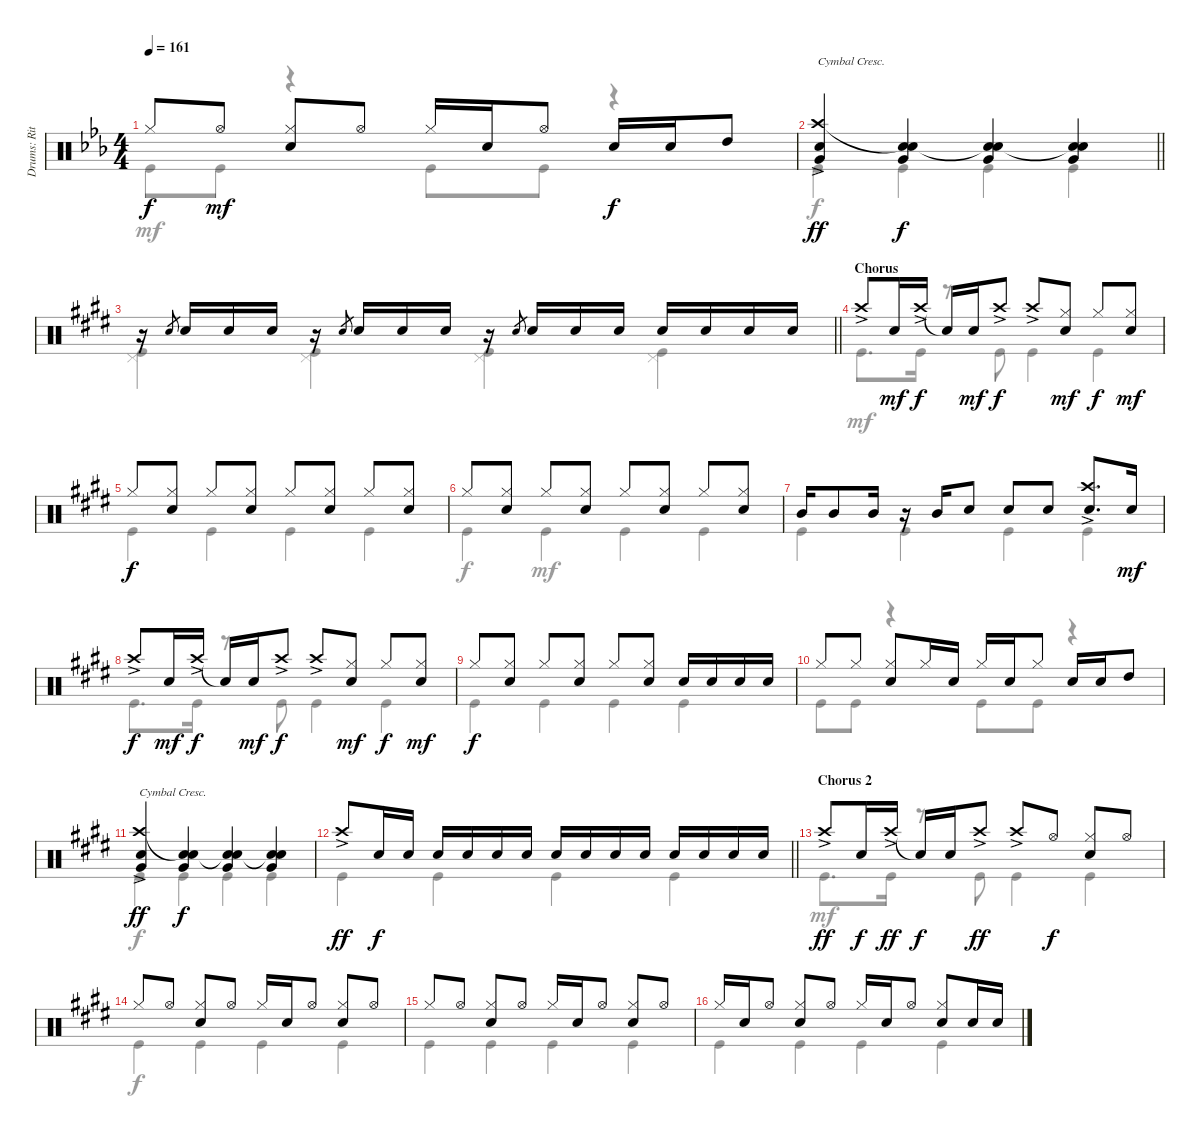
\track ("Drums: Ritsu Tianaka" "Drums: Rit") {instrument percussion}
\staff {score}
\articulation defaults
\voice
\ts (4 4)
\tempo 161
\clef neutral
\ks eb "Hi-Hat (closed)".8{dy f} "Hi-Hat (open)".8{dy mf}
("Hi-Hat (closed)" "Snare (hit) 2").8 "Hi-Hat (open)".8 "Hi-Hat (closed)".16 "Snare (hit) 2".16 "Hi-Hat (open)".8 "Snare (hit) 2".16{dy f} "Snare (hit) 2".16 "High Tom (hit)".8 |
\barLineRight lightlight
("Crash high (hit)"{ac} "Snare (hit) 2" "Very Low Tom (hit)").4{txt "Cymbal Cresc." dy ff} ("Snare (hit)"{t} "Snare (hit) 2" "Very Low Tom (hit)").4{dy f} ("Snare (hit)"{t} "Snare (hit) 2" "Very Low Tom (hit)").4 ("Snare (hit)"{t} "Snare (hit) 2" "Very Low Tom (hit)").4 |
\barLineRight lightlight
\ks e
r.16 "Snare (hit) 2".8{gr} "Snare (hit) 2".16 "Snare (hit) 2".16 "Snare (hit) 2".16 r.16 "Snare (hit) 2".8{gr} "Snare (hit) 2".16 "Snare (hit) 2".16 "Snare (hit) 2".16 r.16 "Snare (hit) 2".8{gr} "Snare (hit) 2".16 "Snare (hit) 2".16 "Snare (hit) 2".16 "Snare (hit) 2".16 "Snare (hit) 2".16 "Snare (hit) 2".16 "Snare (hit) 2".16 |
\section ("" "Chorus")
"Crash high (hit)"{ac}.8 "Snare (hit) 2".16{dy mf} "Crash high (hit)"{ac}.16{dy f} "Snare (hit)"{t}.16 "Snare (hit) 2".16{dy mf} "Crash high (hit)"{ac}.8{dy f} "Crash high (hit)"{ac}.8 ("Hi-Hat (closed)" "Snare (hit) 2").8{dy mf} "Hi-Hat (closed)".8{dy f} ("Hi-Hat (closed)" "Snare (hit) 2").8{dy mf} |
"Hi-Hat (closed)".8{dy f} ("Hi-Hat (closed)" "Snare (hit) 2").8 "Hi-Hat (closed)".8 ("Hi-Hat (closed)" "Snare (hit) 2").8 "Hi-Hat (closed)".8 ("Hi-Hat (closed)" "Snare (hit) 2").8 "Hi-Hat (closed)".8 ("Hi-Hat (closed)" "Snare (hit) 2").8 |
"Hi-Hat (closed)".8 ("Hi-Hat (closed)" "Snare (hit) 2").8 "Hi-Hat (closed)".8 ("Hi-Hat (closed)" "Snare (hit) 2").8 "Hi-Hat (closed)".8 ("Hi-Hat (closed)" "Snare (hit) 2").8 "Hi-Hat (closed)".8 ("Hi-Hat (closed)" "Snare (hit) 2").8 |
"Mid Tom (hit)".16 "Mid Tom (hit)".8 "Mid Tom (hit)".16 r.16 "Mid Tom (hit)".16 "Snare (hit) 2".8 "Snare (hit) 2".8 "Snare (hit) 2".8 ("Crash high (hit)"{ac} "Snare (hit) 2").8{d} "Snare (hit) 2".16{dy mf} |
"Crash high (hit)"{ac}.8{dy f} "Snare (hit) 2".16{dy mf} "Crash high (hit)"{ac}.16{dy f} "Snare (hit)"{t}.16 "Snare (hit) 2".16{dy mf} "Crash high (hit)"{ac}.8{dy f} "Crash high (hit)"{ac}.8 ("Hi-Hat (closed)" "Snare (hit) 2").8{dy mf} "Hi-Hat (closed)".8{dy f} ("Hi-Hat (closed)" "Snare (hit) 2").8{dy mf} |
"Hi-Hat (closed)".8{dy f} ("Hi-Hat (closed)" "Snare (hit) 2").8 "Hi-Hat (closed)".8 ("Hi-Hat (closed)" "Snare (hit) 2").8 "Hi-Hat (closed)".8 ("Hi-Hat (closed)" "Snare (hit) 2").8 "Snare (hit) 2".16 "Snare (hit) 2".16 "Snare (hit) 2".16 "Snare (hit) 2".16 |
"Hi-Hat (closed)".8 "Hi-Hat (closed)".8 ("Hi-Hat (closed)" "Snare (hit) 2").8 "Hi-Hat (closed)".16 "Snare (hit) 2".16 "Hi-Hat (closed)".16 "Snare (hit) 2".16 "Hi-Hat (closed)".8 "Snare (hit) 2".16 "Snare (hit) 2".16 "High Tom (hit)".8 |
("Crash high (hit)"{ac} "Snare (hit) 2" "Very Low Tom (hit)").4{txt "Cymbal Cresc." dy ff} ("Snare (hit)"{t} "Snare (hit) 2" "Very Low Tom (hit)").4{dy f} ("Snare (hit)"{t} "Snare (hit) 2" "Very Low Tom (hit)").4 ("Snare (hit)"{t} "Snare (hit) 2" "Very Low Tom (hit)").4 |
\barLineRight lightlight "Crash high (hit)"{ac}.8{dy ff} "Snare (hit) 2".16{dy f volume 12} "Snare (hit) 2".16{volume 15} "Snare (hit) 2".16 "Snare (hit) 2".16 "Snare (hit) 2".16 "Snare (hit) 2".16 "Snare (hit) 2".16 "Snare (hit) 2".16 "Snare (hit) 2".16 "Snare (hit) 2".16 "Snare (hit) 2".16 "Snare (hit) 2".16 "Snare (hit) 2".16 "Snare (hit) 2".16
|
\section ("" "Chorus 2")
"Crash high (hit)"{ac}.8{dy ff} "Snare (hit) 2".16{dy f} "Crash high (hit)"{ac}.16{dy ff} "Snare (hit)"{t}.16{dy f} "Snare (hit) 2".16 "Crash high (hit)"{ac}.8{dy ff} "Crash high (hit)"{ac}.8 "Hi-Hat (open)".8{dy f} ("Hi-Hat (closed)" "Snare (hit) 2").8 "Hi-Hat (open)".8 |
"Hi-Hat (closed)".8 "Hi-Hat (open)".8 ("Hi-Hat (closed)" "Snare (hit) 2").8 "Hi-Hat (open)".8 "Hi-Hat (closed)".16 "Snare (hit) 2".16 "Hi-Hat (open)".8 ("Hi-Hat (closed)" "Snare (hit) 2").8 "Hi-Hat (open)".8 |
"Hi-Hat (closed)".8 "Hi-Hat (open)".8 ("Hi-Hat (closed)" "Snare (hit) 2").8 "Hi-Hat (open)".8 "Hi-Hat (closed)".16 "Snare (hit) 2".16 "Hi-Hat (open)".8 ("Hi-Hat (closed)" "Snare (hit) 2").8 "Hi-Hat (open)".8 |
"Hi-Hat (closed)".16 "Snare (hit) 2".16 "Hi-Hat (open)".8 ("Hi-Hat (closed)" "Snare (hit) 2").8 "Hi-Hat (open)".8 "Hi-Hat (closed)".16 "Snare (hit) 2".16 "Hi-Hat (open)".8 ("Hi-Hat (closed)" "Snare (hit) 2").8 "Snare (hit) 2".16 "Snare (hit) 2".16
\voice
\clef neutral
\ottava regular
\simile none
\ks eb "Kick (hit)".8{dy mf} "Kick (hit)".8
r.4 "Kick (hit)".8 "Kick (hit)".8 r.4 |
\barLineRight lightlight "Kick (hit)".4{dy f} "Kick (hit)".4 "Kick (hit)".4 "Kick (hit)".4
|
\barLineRight lightlight
\ks e
("Pedal Hi-Hat (hit)" "Kick (hit)").4 ("Pedal Hi-Hat (hit)" "Kick (hit)").4 ("Pedal Hi-Hat (hit)" "Kick (hit)").4 ("Pedal Hi-Hat (hit)" "Kick (hit)").4 |
"Kick (hit)".8{d dy mf} "Kick (hit)".16 r.8 "Kick (hit)".8 "Kick (hit)".4 "Kick (hit)".4 |
"Kick (hit)".4 "Kick (hit)".4 "Kick (hit)".4 "Kick (hit)".4 |
"Kick (hit)".4{dy f} "Kick (hit)".4{dy mf} "Kick (hit)".4 "Kick (hit)".4 |
"Kick (hit)".4 "Kick (hit)".4 "Kick (hit)".4 "Kick (hit)".4 |
"Kick (hit)".8{d} "Kick (hit)".16 r.8 "Kick (hit)".8 "Kick (hit)".4 "Kick (hit)".4 |
"Kick (hit)".4 "Kick (hit)".4 "Kick (hit)".4 "Kick (hit)".4 |
"Kick (hit)".8 "Kick (hit)".8 r.4 "Kick (hit)".8 "Kick (hit)".8 r.4 |
"Kick (hit)".4{dy f} "Kick (hit)".4 "Kick (hit)".4 "Kick (hit)".4 |
\barLineRight lightlight "Kick (hit)".4 "Kick (hit)".4 "Kick (hit)".4 "Kick (hit)".4
|
"Kick (hit)".8{d dy mf} "Kick (hit)".16 r.8 "Kick (hit)".8 "Kick (hit)".4 "Kick (hit)".4 |
"Kick (hit)".4{dy f} "Kick (hit)".4 "Kick (hit)".4 "Kick (hit)".4 |
"Kick (hit)".4 "Kick (hit)".4 "Kick (hit)".4 "Kick (hit)".4 |
"Kick (hit)".4 "Kick (hit)".4 "Kick (hit)".4 "Kick (hit)".4
